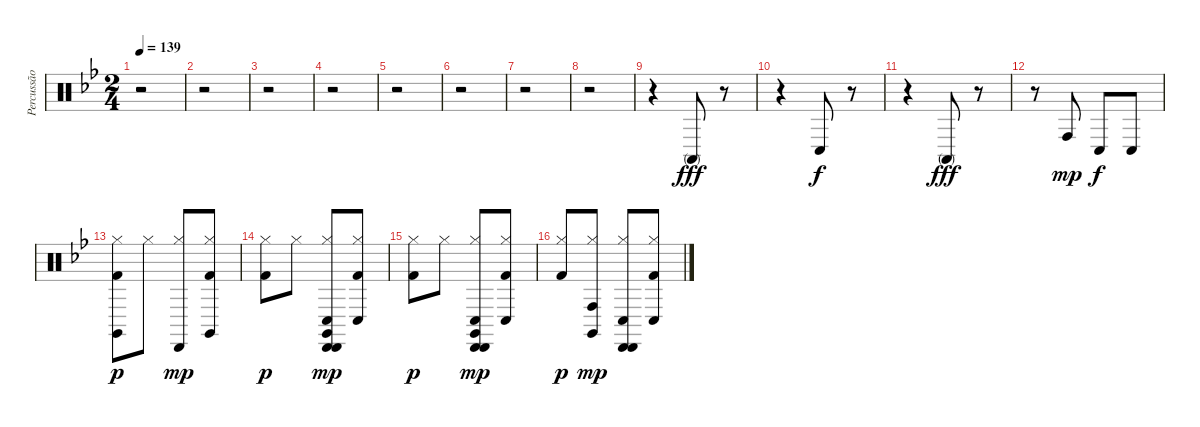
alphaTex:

\track ("Percussão" "Percussão") {instrument percussion}
\staff {score}
\articulation defaults
\ts (2 4)
\tempo 139
\clef neutral
\ks bb
r.2{dy fff} |
r.2 |
r.2 |
r.2 |
r.2 |
r.2 |
r.2 |
r.2 |
r.4 "Conga high (mute)".8 r.8 |
r.4 "Conga low (hit)".8{dy f} r.8 |
r.4 "Conga high (mute)".8{dy fff} r.8 |
r.8 "Conga high (hit)".8{dy mp} "Conga low (hit)".8{dy f} "Conga low (hit)".8 |
("Kick (hit) 2" "Claves (hit)" "Hi-Hat (closed)").8{dy p} "Hi-Hat (closed)".8 ("Hi-Hat (closed)" "Cabasa (hit)").8{dy mp} ("Hi-Hat (closed)" "Claves (hit)" "Kick (hit) 2").8 |
("Kick (hit) 2" "Hi-Hat (closed)").8{dy p} "Hi-Hat (closed)".8 ("Hi-Hat (closed)" "Claves (hit)" "Conga low (hit)" "Cabasa (hit)" "Cabasa (hit)").8{dy mp} ("Hi-Hat (closed)" "Conga low (hit)" "Kick (hit) 2").8 |
("Kick (hit) 2" "Hi-Hat (closed)").8{dy p} "Hi-Hat (closed)".8 ("Hi-Hat (closed)" "Claves (hit)" "Conga low (hit)" "Cabasa (hit)" "Cabasa (hit)").8{dy mp} ("Hi-Hat (closed)" "Conga low (hit)" "Kick (hit) 2").8 |
("Kick (hit) 2" "Hi-Hat (closed)").8{dy p} ("Hi-Hat (closed)" "Claves (hit)" "Conga high (hit)").8{dy mp} ("Hi-Hat (closed)" "Conga low (hit)" "Cabasa (hit)" "Cabasa (hit)").8 ("Hi-Hat (closed)" "Conga low (hit)" "Kick (hit) 2").8
